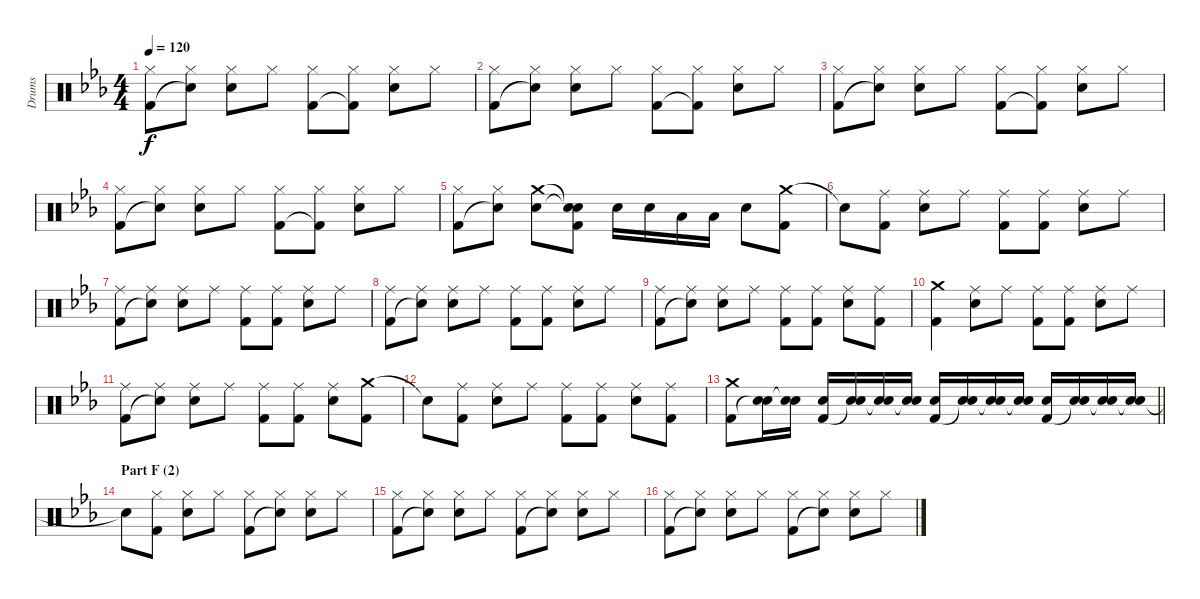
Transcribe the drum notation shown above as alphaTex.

\track ("Drums" "Drums") {instrument percussion}
\staff {score}
\articulation defaults
\ts (4 4)
\tempo 120
\clef neutral
\ks eb
("Hi-Hat (closed)" "Kick (hit) 2").8{dy f} ("Hi-Hat (closed)" "Snare (hit)"{t}).8 ("Hi-Hat (closed)" "Electric Snare (hit)").8 "Hi-Hat (closed)".8 ("Hi-Hat (closed)" "Kick (hit) 2").8 ("Hi-Hat (closed)" "Kick (hit) 2"{t}).8 ("Hi-Hat (closed)" "Electric Snare (hit)").8 "Hi-Hat (closed)".8 |
("Hi-Hat (closed)" "Kick (hit) 2").8 ("Hi-Hat (closed)" "Snare (hit)"{t}).8 ("Hi-Hat (closed)" "Electric Snare (hit)").8 "Hi-Hat (closed)".8 ("Hi-Hat (closed)" "Kick (hit) 2").8 ("Hi-Hat (closed)" "Kick (hit) 2"{t}).8 ("Hi-Hat (closed)" "Electric Snare (hit)").8 "Hi-Hat (closed)".8 |
("Hi-Hat (closed)" "Kick (hit) 2").8 ("Hi-Hat (closed)" "Snare (hit)"{t}).8 ("Hi-Hat (closed)" "Electric Snare (hit)").8 "Hi-Hat (closed)".8 ("Hi-Hat (closed)" "Kick (hit) 2").8 ("Hi-Hat (closed)" "Kick (hit) 2"{t}).8 ("Hi-Hat (closed)" "Electric Snare (hit)").8 "Hi-Hat (closed)".8 |
("Hi-Hat (closed)" "Kick (hit) 2").8 ("Hi-Hat (closed)" "Snare (hit)"{t}).8 ("Hi-Hat (closed)" "Electric Snare (hit)").8 "Hi-Hat (closed)".8 ("Hi-Hat (closed)" "Kick (hit) 2").8 ("Hi-Hat (closed)" "Kick (hit) 2"{t}).8 ("Hi-Hat (closed)" "Electric Snare (hit)").8 "Hi-Hat (closed)".8 |
("Hi-Hat (closed)" "Kick (hit) 2").8 ("Hi-Hat (closed)" "Snare (hit)"{t}).8 ("Crash medium (hit)" "Electric Snare (hit)").8 ("Snare (hit)"{t} "Snare (hit)"{t} "Kick (hit) 2").8 "Electric Snare (hit)".16 "Electric Snare (hit)".16 "Low Tom (hit)".16 "Low Floor Tom (hit)".16 "Electric Snare (hit)".8 ("Crash medium (hit)" "Kick (hit) 2").8 |
"Snare (hit)"{t}.8 ("Ride (middle)" "Kick (hit) 2").8 ("Ride (middle)" "Electric Snare (hit)").8 "Ride (middle)".8 ("Ride (middle)" "Kick (hit) 2").8 ("Ride (middle)" "Kick (hit) 2").8 ("Ride (middle)" "Electric Snare (hit)").8 "Ride (middle)".8 |
("Ride (middle)" "Kick (hit) 2").8 ("Ride (middle)" "Snare (hit)"{t}).8 ("Ride (middle)" "Electric Snare (hit)").8 "Ride (middle)".8 ("Ride (middle)" "Kick (hit) 2").8 ("Ride (middle)" "Kick (hit) 2").8 ("Ride (middle)" "Electric Snare (hit)").8 "Ride (middle)".8 |
("Ride (middle)" "Kick (hit) 2").8 ("Ride (middle)" "Snare (hit)"{t}).8 ("Ride (middle)" "Electric Snare (hit)").8 "Ride (middle)".8 ("Ride (middle)" "Kick (hit) 2").8 ("Ride (middle)" "Kick (hit) 2").8 ("Ride (middle)" "Electric Snare (hit)").8 "Ride (middle)".8 |
("Ride (middle)" "Kick (hit) 2").8 ("Ride (middle)" "Snare (hit)"{t}).8 ("Ride (middle)" "Electric Snare (hit)").8 "Ride (middle)".8 ("Ride (middle)" "Kick (hit) 2").8 ("Ride (middle)" "Kick (hit) 2").8 ("Ride (middle)" "Electric Snare (hit)").8 ("Ride (middle)" "Kick (hit) 2").8 |
("Crash medium (hit)" "Kick (hit) 2").4 ("Ride (middle)" "Electric Snare (hit)").8 "Ride (middle)".8 ("Ride (middle)" "Kick (hit) 2").8 ("Ride (middle)" "Kick (hit) 2").8 ("Ride (middle)" "Electric Snare (hit)").8 "Ride (middle)".8 |
("Ride (middle)" "Kick (hit) 2").8 ("Ride (middle)" "Snare (hit)"{t}).8 ("Ride (middle)" "Electric Snare (hit)").8 "Ride (middle)".8 ("Ride (middle)" "Kick (hit) 2").8 ("Ride (middle)" "Kick (hit) 2").8 ("Ride (middle)" "Electric Snare (hit)").8 ("Crash medium (hit)" "Kick (hit) 2").8 |
"Snare (hit)"{t}.8 ("Ride (middle)" "Kick (hit) 2").8 ("Ride (middle)" "Electric Snare (hit)").8 "Ride (middle)".8 ("Ride (middle)" "Kick (hit) 2").8 ("Ride (middle)" "Kick (hit) 2").8 ("Ride (middle)" "Electric Snare (hit)").8 ("Ride (middle)" "Kick (hit) 2").8 |
\barLineRight lightlight
("Crash medium (hit)" "Kick (hit) 2").8 ("Electric Snare (hit)" "Snare (hit)"{t}).16 ("Electric Snare (hit)" "Snare (hit)"{t}).16 ("Electric Snare (hit)" "Kick (hit) 2").16 ("Electric Snare (hit)" "Snare (hit)"{t}).16 ("Electric Snare (hit)" "Snare (hit)"{t}).16 ("Electric Snare (hit)" "Snare (hit)"{t}).16 ("Electric Snare (hit)" "Kick (hit) 2").16 ("Electric Snare (hit)" "Snare (hit)"{t}).16 ("Electric Snare (hit)" "Snare (hit)"{t}).16 ("Electric Snare (hit)" "Snare (hit)"{t}).16 ("Electric Snare (hit)" "Kick (hit) 2").16 ("Electric Snare (hit)" "Snare (hit)"{t}).16 ("Electric Snare (hit)" "Snare (hit)"{t}).16 ("Electric Snare (hit)" "Snare (hit)"{t}).16 |
\section ("" "Part F (2)")
"Snare (hit)"{t}.8 ("Hi-Hat (closed)" "Kick (hit) 2").8 ("Hi-Hat (closed)" "Electric Snare (hit)").8 "Hi-Hat (closed)".8 ("Hi-Hat (closed)" "Kick (hit) 2").8 ("Hi-Hat (closed)" "Snare (hit)"{t}).8 ("Hi-Hat (closed)" "Electric Snare (hit)").8 "Hi-Hat (closed)".8 |
("Hi-Hat (closed)" "Kick (hit) 2").8 ("Hi-Hat (closed)" "Snare (hit)"{t}).8 ("Hi-Hat (closed)" "Electric Snare (hit)").8 "Hi-Hat (closed)".8 ("Hi-Hat (closed)" "Kick (hit) 2").8 ("Hi-Hat (closed)" "Snare (hit)"{t}).8 ("Hi-Hat (closed)" "Electric Snare (hit)").8 "Hi-Hat (closed)".8 |
("Hi-Hat (closed)" "Kick (hit) 2").8 ("Hi-Hat (closed)" "Snare (hit)"{t}).8 ("Hi-Hat (closed)" "Electric Snare (hit)").8 "Hi-Hat (closed)".8 ("Hi-Hat (closed)" "Kick (hit) 2").8 ("Hi-Hat (closed)" "Snare (hit)"{t}).8 ("Hi-Hat (closed)" "Electric Snare (hit)").8 "Hi-Hat (closed)".8
